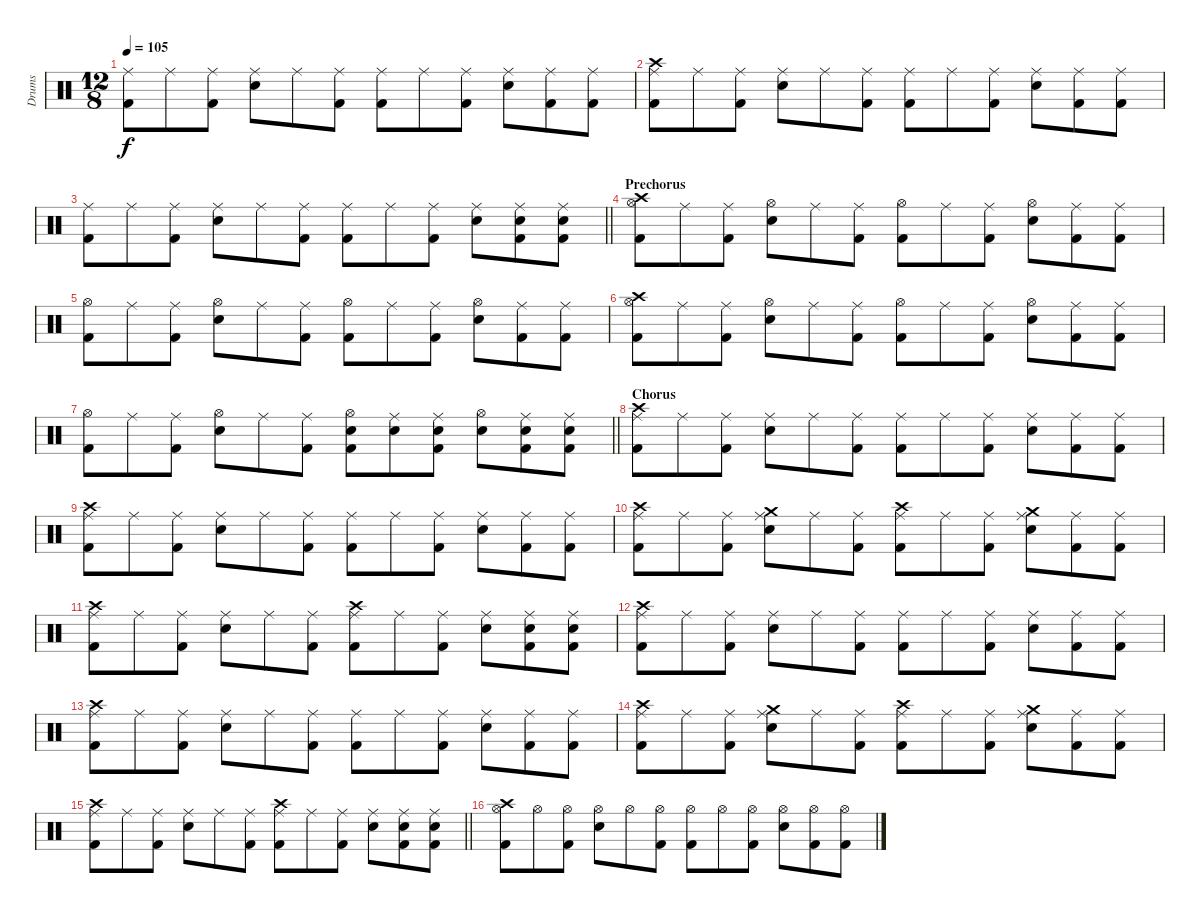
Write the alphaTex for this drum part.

\track ("Drums" "Drums") {instrument percussion}
\staff {score}
\articulation defaults
\ts (12 8)
\tempo 105
\clef neutral
\ks c
("Ride (middle)" "Kick (hit) 2").8{dy f} "Ride (middle)".8 ("Ride (middle)" "Kick (hit) 2").8 ("Ride (middle)" "Snare (hit) 2").8 "Ride (middle)".8 ("Ride (middle)" "Kick (hit) 2").8 ("Ride (middle)" "Kick (hit) 2").8 "Ride (middle)".8 ("Ride (middle)" "Kick (hit) 2").8 ("Ride (middle)" "Snare (hit) 2").8 ("Ride (middle)" "Kick (hit) 2").8 ("Ride (middle)" "Kick (hit) 2").8 |
("Crash high (hit)" "Ride (middle)" "Kick (hit) 2").8 "Ride (middle)".8 ("Ride (middle)" "Kick (hit) 2").8 ("Ride (middle)" "Snare (hit) 2").8 "Ride (middle)".8 ("Ride (middle)" "Kick (hit) 2").8 ("Ride (middle)" "Kick (hit) 2").8 "Ride (middle)".8 ("Ride (middle)" "Kick (hit) 2").8 ("Ride (middle)" "Snare (hit) 2").8 ("Ride (middle)" "Kick (hit) 2").8 ("Ride (middle)" "Kick (hit) 2").8 |
\barLineRight lightlight
("Ride (middle)" "Kick (hit) 2").8 "Ride (middle)".8 ("Ride (middle)" "Kick (hit) 2").8 ("Ride (middle)" "Snare (hit) 2").8 "Ride (middle)".8 ("Ride (middle)" "Kick (hit) 2").8 ("Ride (middle)" "Kick (hit) 2").8 "Ride (middle)".8 ("Ride (middle)" "Kick (hit) 2").8 ("Ride (middle)" "Snare (hit) 2").8 ("Ride (middle)" "Snare (hit) 2" "Kick (hit) 2").8 ("Ride (middle)" "Snare (hit) 2" "Kick (hit) 2").8 |
\section ("" "Prechorus")
("Crash high (hit)" "Hi-Hat (open)" "Kick (hit) 2").8 "Ride (middle)".8 ("Ride (middle)" "Kick (hit) 2").8 ("Hi-Hat (open)" "Snare (hit) 2").8 "Ride (middle)".8 ("Ride (middle)" "Kick (hit) 2").8 ("Hi-Hat (open)" "Kick (hit) 2").8 "Ride (middle)".8 ("Ride (middle)" "Kick (hit) 2").8 ("Hi-Hat (open)" "Snare (hit) 2").8 ("Ride (middle)" "Kick (hit) 2").8 ("Ride (middle)" "Kick (hit) 2").8 |
("Hi-Hat (open)" "Kick (hit) 2").8 "Ride (middle)".8 ("Ride (middle)" "Kick (hit) 2").8 ("Hi-Hat (open)" "Snare (hit) 2").8 "Ride (middle)".8 ("Ride (middle)" "Kick (hit) 2").8 ("Hi-Hat (open)" "Kick (hit) 2").8 "Ride (middle)".8 ("Ride (middle)" "Kick (hit) 2").8 ("Hi-Hat (open)" "Snare (hit) 2").8 ("Ride (middle)" "Kick (hit) 2").8 ("Ride (middle)" "Kick (hit) 2").8 |
("Crash high (hit)" "Hi-Hat (open)" "Kick (hit) 2").8 "Ride (middle)".8 ("Ride (middle)" "Kick (hit) 2").8 ("Hi-Hat (open)" "Snare (hit) 2").8 "Ride (middle)".8 ("Ride (middle)" "Kick (hit) 2").8 ("Hi-Hat (open)" "Kick (hit) 2").8 "Ride (middle)".8 ("Ride (middle)" "Kick (hit) 2").8 ("Hi-Hat (open)" "Snare (hit) 2").8 ("Ride (middle)" "Kick (hit) 2").8 ("Ride (middle)" "Kick (hit) 2").8 |
\barLineRight lightlight
("Hi-Hat (open)" "Kick (hit) 2").8 "Ride (middle)".8 ("Ride (middle)" "Kick (hit) 2").8 ("Hi-Hat (open)" "Snare (hit) 2").8 "Ride (middle)".8 ("Ride (middle)" "Kick (hit) 2").8 ("Hi-Hat (open)" "Snare (hit) 2" "Kick (hit) 2").8 ("Ride (middle)" "Snare (hit) 2").8 ("Ride (middle)" "Snare (hit) 2" "Kick (hit) 2").8 ("Hi-Hat (open)" "Snare (hit) 2").8 ("Ride (middle)" "Snare (hit) 2" "Kick (hit) 2").8 ("Ride (middle)" "Snare (hit) 2" "Kick (hit) 2").8 |
\section ("" "Chorus")
("Crash high (hit)" "Ride (middle)" "Kick (hit) 2").8 "Ride (middle)".8 ("Ride (middle)" "Kick (hit) 2").8 ("Ride (middle)" "Snare (hit) 2").8 "Ride (middle)".8 ("Ride (middle)" "Kick (hit) 2").8 ("Ride (middle)" "Kick (hit) 2").8 "Ride (middle)".8 ("Ride (middle)" "Kick (hit) 2").8 ("Ride (middle)" "Snare (hit) 2").8 ("Ride (middle)" "Kick (hit) 2").8 ("Ride (middle)" "Kick (hit) 2").8 |
("Crash high (hit)" "Ride (middle)" "Kick (hit) 2").8 "Ride (middle)".8 ("Ride (middle)" "Kick (hit) 2").8 ("Ride (middle)" "Snare (hit) 2").8 "Ride (middle)".8 ("Ride (middle)" "Kick (hit) 2").8 ("Ride (middle)" "Kick (hit) 2").8 "Ride (middle)".8 ("Ride (middle)" "Kick (hit) 2").8 ("Ride (middle)" "Snare (hit) 2").8 ("Ride (middle)" "Kick (hit) 2").8 ("Ride (middle)" "Kick (hit) 2").8 |
("Crash high (hit)" "Ride (middle)" "Kick (hit) 2").8 "Ride (middle)".8 ("Ride (middle)" "Kick (hit) 2").8 ("Crash medium (hit)" "Ride (middle)" "Snare (hit) 2").8 "Ride (middle)".8 ("Ride (middle)" "Kick (hit) 2").8 ("Crash high (hit)" "Ride (middle)" "Kick (hit) 2").8 "Ride (middle)".8 ("Ride (middle)" "Kick (hit) 2").8 ("Crash medium (hit)" "Ride (middle)" "Snare (hit) 2").8 ("Ride (middle)" "Kick (hit) 2").8 ("Ride (middle)" "Kick (hit) 2").8 |
("Crash high (hit)" "Ride (middle)" "Kick (hit) 2").8 "Ride (middle)".8 ("Ride (middle)" "Kick (hit) 2").8 ("Ride (middle)" "Snare (hit) 2").8 "Ride (middle)".8 ("Ride (middle)" "Kick (hit) 2").8 ("Crash high (hit)" "Ride (middle)" "Kick (hit) 2").8 "Ride (middle)".8 ("Ride (middle)" "Kick (hit) 2").8 ("Ride (middle)" "Snare (hit) 2").8 ("Ride (middle)" "Snare (hit) 2" "Kick (hit) 2").8 ("Ride (middle)" "Snare (hit) 2" "Kick (hit) 2").8 |
("Crash high (hit)" "Ride (middle)" "Kick (hit) 2").8 "Ride (middle)".8 ("Ride (middle)" "Kick (hit) 2").8 ("Ride (middle)" "Snare (hit) 2").8 "Ride (middle)".8 ("Ride (middle)" "Kick (hit) 2").8 ("Ride (middle)" "Kick (hit) 2").8 "Ride (middle)".8 ("Ride (middle)" "Kick (hit) 2").8 ("Ride (middle)" "Snare (hit) 2").8 ("Ride (middle)" "Kick (hit) 2").8 ("Ride (middle)" "Kick (hit) 2").8 |
("Crash high (hit)" "Ride (middle)" "Kick (hit) 2").8 "Ride (middle)".8 ("Ride (middle)" "Kick (hit) 2").8 ("Ride (middle)" "Snare (hit) 2").8 "Ride (middle)".8 ("Ride (middle)" "Kick (hit) 2").8 ("Ride (middle)" "Kick (hit) 2").8 "Ride (middle)".8 ("Ride (middle)" "Kick (hit) 2").8 ("Ride (middle)" "Snare (hit) 2").8 ("Ride (middle)" "Kick (hit) 2").8 ("Ride (middle)" "Kick (hit) 2").8 |
("Crash high (hit)" "Ride (middle)" "Kick (hit) 2").8 "Ride (middle)".8 ("Ride (middle)" "Kick (hit) 2").8 ("Crash medium (hit)" "Ride (middle)" "Snare (hit) 2").8 "Ride (middle)".8 ("Ride (middle)" "Kick (hit) 2").8 ("Crash high (hit)" "Ride (middle)" "Kick (hit) 2").8 "Ride (middle)".8 ("Ride (middle)" "Kick (hit) 2").8 ("Crash medium (hit)" "Ride (middle)" "Snare (hit) 2").8 ("Ride (middle)" "Kick (hit) 2").8 ("Ride (middle)" "Kick (hit) 2").8 |
\barLineRight lightlight
("Crash high (hit)" "Ride (middle)" "Kick (hit) 2").8 "Ride (middle)".8 ("Ride (middle)" "Kick (hit) 2").8 ("Ride (middle)" "Snare (hit) 2").8 "Ride (middle)".8 ("Ride (middle)" "Kick (hit) 2").8 ("Crash high (hit)" "Ride (middle)" "Kick (hit) 2").8 "Ride (middle)".8 ("Ride (middle)" "Kick (hit) 2").8 ("Ride (middle)" "Snare (hit) 2").8 ("Ride (middle)" "Snare (hit) 2" "Kick (hit) 2").8 ("Ride (middle)" "Snare (hit) 2" "Kick (hit) 2").8 |
("Crash high (hit)" "Hi-Hat (open)" "Kick (hit) 2").8 "Hi-Hat (open)".8 ("Hi-Hat (open)" "Kick (hit) 2").8 ("Hi-Hat (open)" "Snare (hit) 2").8 "Hi-Hat (open)".8 ("Hi-Hat (open)" "Kick (hit) 2").8 ("Hi-Hat (open)" "Kick (hit) 2").8 "Hi-Hat (open)".8 ("Hi-Hat (open)" "Kick (hit) 2").8 ("Hi-Hat (open)" "Snare (hit) 2").8 ("Hi-Hat (open)" "Kick (hit) 2").8 ("Hi-Hat (open)" "Kick (hit) 2").8
